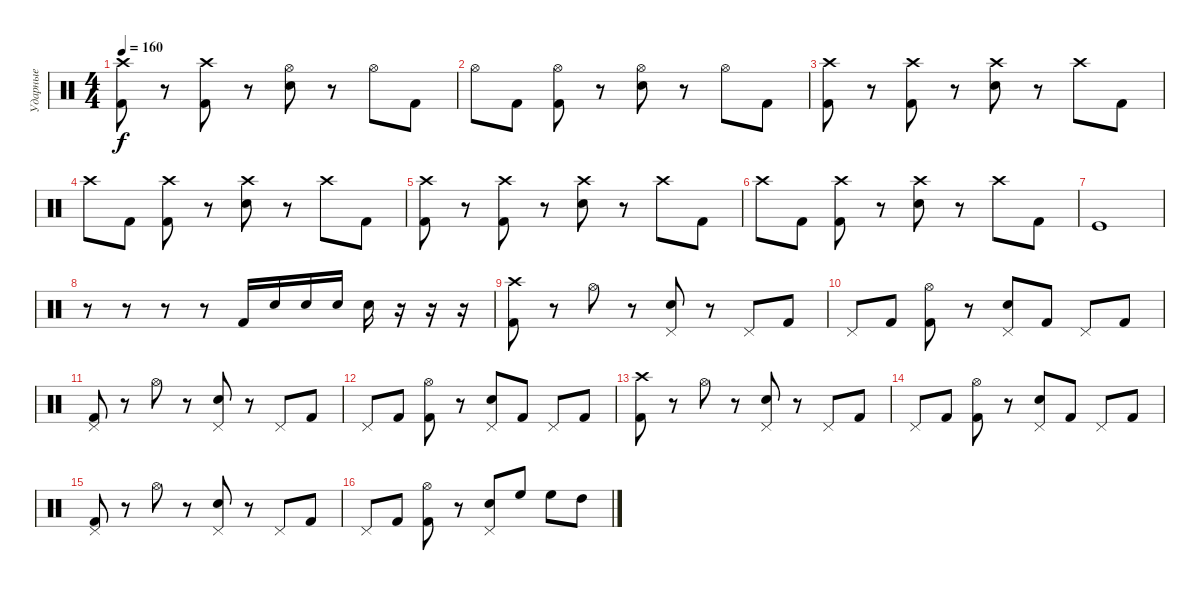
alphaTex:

\track ("Ударные" "Ударные") {instrument percussion}
\staff {score}
\articulation defaults
\ts (4 4)
\tempo 160
\clef neutral
\ks c
("Crash high (hit)" "Kick (hit) 2").8{dy f} r.8 ("Crash high (hit)" "Kick (hit) 2").8 r.8 ("Hi-Hat (open)" "Snare (hit) 2").8 r.8 "Hi-Hat (open)".8 "Kick (hit) 2".8 |
"Hi-Hat (open)".8 "Kick (hit) 2".8 ("Hi-Hat (open)" "Kick (hit) 2").8 r.8 ("Hi-Hat (open)" "Snare (hit) 2").8 r.8 "Hi-Hat (open)".8 "Kick (hit) 2".8 |
("Crash high (hit)" "Kick (hit) 2").8 r.8 ("Crash high (hit)" "Kick (hit) 2").8 r.8 ("Crash high (hit)" "Snare (hit) 2").8 r.8 "Crash high (hit)".8 "Kick (hit) 2".8 |
"Crash high (hit)".8 "Kick (hit) 2".8 ("Crash high (hit)" "Kick (hit) 2").8 r.8 ("Crash high (hit)" "Snare (hit) 2").8 r.8 "Crash high (hit)".8 "Kick (hit) 2".8 |
("Crash high (hit)" "Kick (hit) 2").8 r.8 ("Crash high (hit)" "Kick (hit) 2").8 r.8 ("Crash high (hit)" "Snare (hit) 2").8 r.8 "Crash high (hit)".8 "Kick (hit) 2".8 |
"Crash high (hit)".8 "Kick (hit) 2".8 ("Crash high (hit)" "Kick (hit) 2").8 r.8 ("Crash high (hit)" "Snare (hit) 2").8 r.8 "Crash high (hit)".8 "Kick (hit) 2".8 |
"Kick (hit)".1 |
r.8 r.8 r.8 r.8 "Kick (hit) 2".16 "Snare (hit) 2".16 "Snare (hit) 2".16 "Snare (hit) 2".16 "Snare (hit) 2".16 r.16 r.16 r.16 |
("Crash high (hit)" "Kick (hit) 2").8 r.8 "Hi-Hat (open)".8 r.8 ("Pedal Hi-Hat (hit)" "Snare (hit) 2").8 r.8 "Pedal Hi-Hat (hit)".8 "Kick (hit) 2".8 |
"Pedal Hi-Hat (hit)".8 "Kick (hit) 2".8 ("Hi-Hat (open)" "Kick (hit) 2").8 r.8 ("Pedal Hi-Hat (hit)" "Snare (hit) 2").8 "Kick (hit) 2".8 "Pedal Hi-Hat (hit)".8 "Kick (hit) 2".8 |
("Pedal Hi-Hat (hit)" "Kick (hit) 2").8 r.8 "Hi-Hat (open)".8 r.8 ("Pedal Hi-Hat (hit)" "Snare (hit) 2").8 r.8 "Pedal Hi-Hat (hit)".8 "Kick (hit) 2".8 |
"Pedal Hi-Hat (hit)".8 "Kick (hit) 2".8 ("Hi-Hat (open)" "Kick (hit) 2").8 r.8 ("Pedal Hi-Hat (hit)" "Snare (hit) 2").8 "Kick (hit) 2".8 "Pedal Hi-Hat (hit)".8 "Kick (hit) 2".8 |
("Crash high (hit)" "Kick (hit) 2").8 r.8 "Hi-Hat (open)".8 r.8 ("Pedal Hi-Hat (hit)" "Snare (hit) 2").8 r.8 "Pedal Hi-Hat (hit)".8 "Kick (hit) 2".8 |
"Pedal Hi-Hat (hit)".8 "Kick (hit) 2".8 ("Hi-Hat (open)" "Kick (hit) 2").8 r.8 ("Pedal Hi-Hat (hit)" "Snare (hit) 2").8 "Kick (hit) 2".8 "Pedal Hi-Hat (hit)".8 "Kick (hit) 2".8 |
("Pedal Hi-Hat (hit)" "Kick (hit) 2").8 r.8 "Hi-Hat (open)".8 r.8 ("Pedal Hi-Hat (hit)" "Snare (hit) 2").8 r.8 "Pedal Hi-Hat (hit)".8 "Kick (hit) 2".8 |
"Pedal Hi-Hat (hit)".8 "Kick (hit) 2".8 ("Hi-Hat (open)" "Kick (hit) 2").8 r.8 ("Pedal Hi-Hat (hit)" "Snare (hit) 2").8 "High Floor Tom (hit)".8 "High Floor Tom (hit)".8 "High Tom (hit)".8
